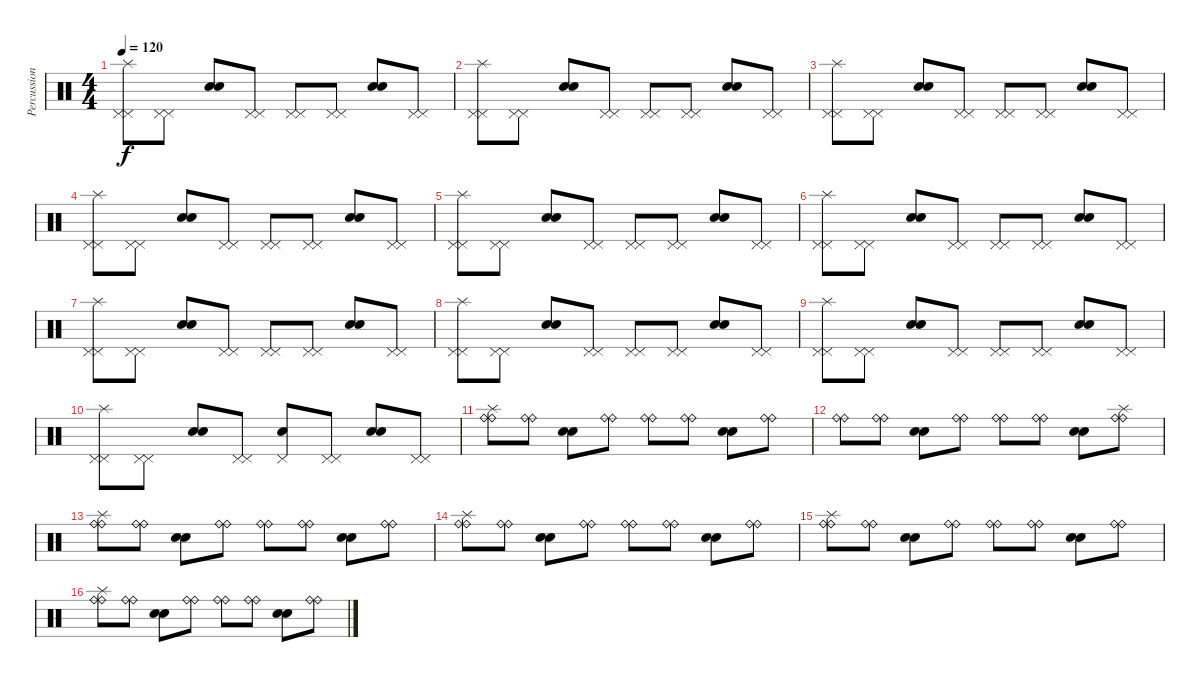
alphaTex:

\track ("Percussioni" "Percussion") {instrument percussion}
\staff {score}
\articulation defaults
\ts (4 4)
\tempo 120
\clef neutral
\ks c
("Splash (hit)" "Pedal Hi-Hat (hit)" "Pedal Hi-Hat (hit)").8{dy f} ("Pedal Hi-Hat (hit)" "Pedal Hi-Hat (hit)").8 ("Snare (hit) 2" "Snare (hit) 2").8 ("Pedal Hi-Hat (hit)" "Pedal Hi-Hat (hit)").8 ("Pedal Hi-Hat (hit)" "Pedal Hi-Hat (hit)").8 ("Pedal Hi-Hat (hit)" "Pedal Hi-Hat (hit)").8 ("Snare (hit) 2" "Snare (hit) 2").8 ("Pedal Hi-Hat (hit)" "Pedal Hi-Hat (hit)").8 |
("Splash (hit)" "Pedal Hi-Hat (hit)" "Pedal Hi-Hat (hit)").8 ("Pedal Hi-Hat (hit)" "Pedal Hi-Hat (hit)").8 ("Snare (hit) 2" "Snare (hit) 2").8 ("Pedal Hi-Hat (hit)" "Pedal Hi-Hat (hit)").8 ("Pedal Hi-Hat (hit)" "Pedal Hi-Hat (hit)").8 ("Pedal Hi-Hat (hit)" "Pedal Hi-Hat (hit)").8 ("Snare (hit) 2" "Snare (hit) 2").8 ("Pedal Hi-Hat (hit)" "Pedal Hi-Hat (hit)").8 |
("Splash (hit)" "Pedal Hi-Hat (hit)" "Pedal Hi-Hat (hit)").8 ("Pedal Hi-Hat (hit)" "Pedal Hi-Hat (hit)").8 ("Snare (hit) 2" "Snare (hit) 2").8 ("Pedal Hi-Hat (hit)" "Pedal Hi-Hat (hit)").8 ("Pedal Hi-Hat (hit)" "Pedal Hi-Hat (hit)").8 ("Pedal Hi-Hat (hit)" "Pedal Hi-Hat (hit)").8 ("Snare (hit) 2" "Snare (hit) 2").8 ("Pedal Hi-Hat (hit)" "Pedal Hi-Hat (hit)").8 |
("Splash (hit)" "Pedal Hi-Hat (hit)" "Pedal Hi-Hat (hit)").8 ("Pedal Hi-Hat (hit)" "Pedal Hi-Hat (hit)").8 ("Snare (hit) 2" "Snare (hit) 2").8 ("Pedal Hi-Hat (hit)" "Pedal Hi-Hat (hit)").8 ("Pedal Hi-Hat (hit)" "Pedal Hi-Hat (hit)").8 ("Pedal Hi-Hat (hit)" "Pedal Hi-Hat (hit)").8 ("Snare (hit) 2" "Snare (hit) 2").8 ("Pedal Hi-Hat (hit)" "Pedal Hi-Hat (hit)").8 |
("Splash (hit)" "Pedal Hi-Hat (hit)" "Pedal Hi-Hat (hit)").8 ("Pedal Hi-Hat (hit)" "Pedal Hi-Hat (hit)").8 ("Snare (hit) 2" "Snare (hit) 2").8 ("Pedal Hi-Hat (hit)" "Pedal Hi-Hat (hit)").8 ("Pedal Hi-Hat (hit)" "Pedal Hi-Hat (hit)").8 ("Pedal Hi-Hat (hit)" "Pedal Hi-Hat (hit)").8 ("Snare (hit) 2" "Snare (hit) 2").8 ("Pedal Hi-Hat (hit)" "Pedal Hi-Hat (hit)").8 |
("Splash (hit)" "Pedal Hi-Hat (hit)" "Pedal Hi-Hat (hit)").8 ("Pedal Hi-Hat (hit)" "Pedal Hi-Hat (hit)").8 ("Snare (hit) 2" "Snare (hit) 2").8 ("Pedal Hi-Hat (hit)" "Pedal Hi-Hat (hit)").8 ("Pedal Hi-Hat (hit)" "Pedal Hi-Hat (hit)").8 ("Pedal Hi-Hat (hit)" "Pedal Hi-Hat (hit)").8 ("Snare (hit) 2" "Snare (hit) 2").8 ("Pedal Hi-Hat (hit)" "Pedal Hi-Hat (hit)").8 |
("Splash (hit)" "Pedal Hi-Hat (hit)" "Pedal Hi-Hat (hit)").8 ("Pedal Hi-Hat (hit)" "Pedal Hi-Hat (hit)").8 ("Snare (hit) 2" "Snare (hit) 2").8 ("Pedal Hi-Hat (hit)" "Pedal Hi-Hat (hit)").8 ("Pedal Hi-Hat (hit)" "Pedal Hi-Hat (hit)").8 ("Pedal Hi-Hat (hit)" "Pedal Hi-Hat (hit)").8 ("Snare (hit) 2" "Snare (hit) 2").8 ("Pedal Hi-Hat (hit)" "Pedal Hi-Hat (hit)").8 |
("Splash (hit)" "Pedal Hi-Hat (hit)" "Pedal Hi-Hat (hit)").8 ("Pedal Hi-Hat (hit)" "Pedal Hi-Hat (hit)").8 ("Snare (hit) 2" "Snare (hit) 2").8 ("Pedal Hi-Hat (hit)" "Pedal Hi-Hat (hit)").8 ("Pedal Hi-Hat (hit)" "Pedal Hi-Hat (hit)").8 ("Pedal Hi-Hat (hit)" "Pedal Hi-Hat (hit)").8 ("Snare (hit) 2" "Snare (hit) 2").8 ("Pedal Hi-Hat (hit)" "Pedal Hi-Hat (hit)").8 |
("Splash (hit)" "Pedal Hi-Hat (hit)" "Pedal Hi-Hat (hit)").8 ("Pedal Hi-Hat (hit)" "Pedal Hi-Hat (hit)").8 ("Snare (hit) 2" "Snare (hit) 2").8 ("Pedal Hi-Hat (hit)" "Pedal Hi-Hat (hit)").8 ("Pedal Hi-Hat (hit)" "Pedal Hi-Hat (hit)").8 ("Pedal Hi-Hat (hit)" "Pedal Hi-Hat (hit)").8 ("Snare (hit) 2" "Snare (hit) 2").8 ("Pedal Hi-Hat (hit)" "Pedal Hi-Hat (hit)").8 |
("Splash (hit)" "Pedal Hi-Hat (hit)" "Pedal Hi-Hat (hit)").8 ("Pedal Hi-Hat (hit)" "Pedal Hi-Hat (hit)").8 ("Snare (hit) 2" "Snare (hit) 2").8 ("Pedal Hi-Hat (hit)" "Pedal Hi-Hat (hit)").8 ("Snare (hit) 2" "Pedal Hi-Hat (hit)").8 ("Pedal Hi-Hat (hit)" "Pedal Hi-Hat (hit)").8 ("Snare (hit) 2" "Snare (hit) 2").8 ("Pedal Hi-Hat (hit)" "Pedal Hi-Hat (hit)").8 |
("Splash (hit)" "Ride (bell)" "Ride (bell)").8 ("Ride (bell)" "Ride (bell)").8 ("Snare (hit) 2" "Snare (hit) 2").8 ("Ride (bell)" "Ride (bell)").8 ("Ride (bell)" "Ride (bell)").8 ("Ride (bell)" "Ride (bell)").8 ("Snare (hit) 2" "Snare (hit) 2").8 ("Ride (bell)" "Ride (bell)").8 |
("Ride (bell)" "Ride (bell)").8 ("Ride (bell)" "Ride (bell)").8 ("Snare (hit) 2" "Snare (hit) 2").8 ("Ride (bell)" "Ride (bell)").8 ("Ride (bell)" "Ride (bell)").8 ("Ride (bell)" "Ride (bell)").8 ("Snare (hit) 2" "Snare (hit) 2").8 ("Splash (hit)" "Ride (bell)" "Ride (bell)").8 |
("Splash (hit)" "Ride (bell)" "Ride (bell)").8 ("Ride (bell)" "Ride (bell)").8 ("Snare (hit) 2" "Snare (hit) 2").8 ("Ride (bell)" "Ride (bell)").8 ("Ride (bell)" "Ride (bell)").8 ("Ride (bell)" "Ride (bell)").8 ("Snare (hit) 2" "Snare (hit) 2").8 ("Ride (bell)" "Ride (bell)").8 |
("Splash (hit)" "Ride (bell)" "Ride (bell)").8 ("Ride (bell)" "Ride (bell)").8 ("Snare (hit) 2" "Snare (hit) 2").8 ("Ride (bell)" "Ride (bell)").8 ("Ride (bell)" "Ride (bell)").8 ("Ride (bell)" "Ride (bell)").8 ("Snare (hit) 2" "Snare (hit) 2").8 ("Ride (bell)" "Ride (bell)").8 |
("Splash (hit)" "Ride (bell)" "Ride (bell)").8 ("Ride (bell)" "Ride (bell)").8 ("Snare (hit) 2" "Snare (hit) 2").8 ("Ride (bell)" "Ride (bell)").8 ("Ride (bell)" "Ride (bell)").8 ("Ride (bell)" "Ride (bell)").8 ("Snare (hit) 2" "Snare (hit) 2").8 ("Ride (bell)" "Ride (bell)").8 |
("Splash (hit)" "Ride (bell)" "Ride (bell)").8 ("Ride (bell)" "Ride (bell)").8 ("Snare (hit) 2" "Snare (hit) 2").8 ("Ride (bell)" "Ride (bell)").8 ("Ride (bell)" "Ride (bell)").8 ("Ride (bell)" "Ride (bell)").8 ("Snare (hit) 2" "Snare (hit) 2").8 ("Ride (bell)" "Ride (bell)").8
